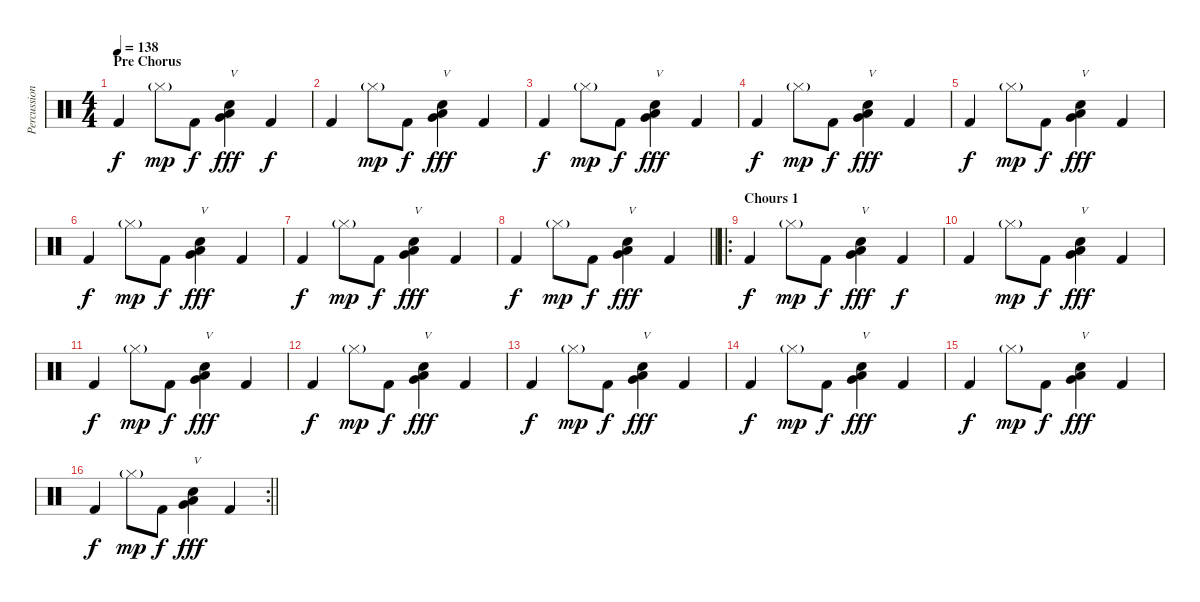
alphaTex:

\track ("Percussion" "Percussion") {instrument percussion}
\staff {score}
\articulation defaults
\ts (4 4)
\section ("" "Pre Chorus")
\tempo 138
\clef neutral
\ks c "Kick (hit) 2".4{dy f} "Hi-Hat (closed)"{g}.8{dy mp} "Kick (hit) 2".8{dy f}
("Low Tom (hit)" "Very Low Tom (hit)" "Snare (hit) 2").4{txt "V" dy fff} "Kick (hit) 2".4{dy f} |
"Kick (hit) 2".4 "Hi-Hat (closed)"{g}.8{dy mp} "Kick (hit) 2".8{dy f} ("Low Tom (hit)" "Very Low Tom (hit)" "Snare (hit) 2").4{txt "V" dy fff} "Kick (hit) 2".4 |
"Kick (hit) 2".4{dy f} "Hi-Hat (closed)"{g}.8{dy mp} "Kick (hit) 2".8{dy f} ("Low Tom (hit)" "Very Low Tom (hit)" "Snare (hit) 2").4{txt "V" dy fff} "Kick (hit) 2".4 |
"Kick (hit) 2".4{dy f} "Hi-Hat (closed)"{g}.8{dy mp} "Kick (hit) 2".8{dy f} ("Low Tom (hit)" "Very Low Tom (hit)" "Snare (hit) 2").4{txt "V" dy fff} "Kick (hit) 2".4 |
"Kick (hit) 2".4{dy f} "Hi-Hat (closed)"{g}.8{dy mp} "Kick (hit) 2".8{dy f} ("Low Tom (hit)" "Very Low Tom (hit)" "Snare (hit) 2").4{txt "V" dy fff} "Kick (hit) 2".4 |
"Kick (hit) 2".4{dy f} "Hi-Hat (closed)"{g}.8{dy mp} "Kick (hit) 2".8{dy f} ("Low Tom (hit)" "Very Low Tom (hit)" "Snare (hit) 2").4{txt "V" dy fff} "Kick (hit) 2".4 |
"Kick (hit) 2".4{dy f} "Hi-Hat (closed)"{g}.8{dy mp} "Kick (hit) 2".8{dy f} ("Low Tom (hit)" "Very Low Tom (hit)" "Snare (hit) 2").4{txt "V" dy fff} "Kick (hit) 2".4 |
\barLineRight lightlight "Kick (hit) 2".4{dy f} "Hi-Hat (closed)"{g}.8{dy mp} "Kick (hit) 2".8{dy f}
("Low Tom (hit)" "Very Low Tom (hit)" "Snare (hit) 2").4{txt "V" dy fff} "Kick (hit) 2".4 |
\ro
\section ("" "Chours 1")
"Kick (hit) 2".4{dy f} "Hi-Hat (closed)"{g}.8{dy mp} "Kick (hit) 2".8{dy f} ("Low Tom (hit)" "Very Low Tom (hit)" "Snare (hit) 2").4{txt "V" dy fff} "Kick (hit) 2".4{dy f} |
"Kick (hit) 2".4 "Hi-Hat (closed)"{g}.8{dy mp} "Kick (hit) 2".8{dy f} ("Low Tom (hit)" "Very Low Tom (hit)" "Snare (hit) 2").4{txt "V" dy fff} "Kick (hit) 2".4 |
"Kick (hit) 2".4{dy f} "Hi-Hat (closed)"{g}.8{dy mp} "Kick (hit) 2".8{dy f} ("Low Tom (hit)" "Very Low Tom (hit)" "Snare (hit) 2").4{txt "V" dy fff} "Kick (hit) 2".4 |
"Kick (hit) 2".4{dy f} "Hi-Hat (closed)"{g}.8{dy mp} "Kick (hit) 2".8{dy f} ("Low Tom (hit)" "Very Low Tom (hit)" "Snare (hit) 2").4{txt "V" dy fff} "Kick (hit) 2".4 |
"Kick (hit) 2".4{dy f} "Hi-Hat (closed)"{g}.8{dy mp} "Kick (hit) 2".8{dy f} ("Low Tom (hit)" "Very Low Tom (hit)" "Snare (hit) 2").4{txt "V" dy fff} "Kick (hit) 2".4 |
"Kick (hit) 2".4{dy f} "Hi-Hat (closed)"{g}.8{dy mp} "Kick (hit) 2".8{dy f} ("Low Tom (hit)" "Very Low Tom (hit)" "Snare (hit) 2").4{txt "V" dy fff} "Kick (hit) 2".4 |
"Kick (hit) 2".4{dy f} "Hi-Hat (closed)"{g}.8{dy mp} "Kick (hit) 2".8{dy f} ("Low Tom (hit)" "Very Low Tom (hit)" "Snare (hit) 2").4{txt "V" dy fff} "Kick (hit) 2".4 |
\rc 2
\barLineRight lightlight "Kick (hit) 2".4{dy f} "Hi-Hat (closed)"{g}.8{dy mp} "Kick (hit) 2".8{dy f}
("Low Tom (hit)" "Very Low Tom (hit)" "Snare (hit) 2").4{txt "V" dy fff} "Kick (hit) 2".4
